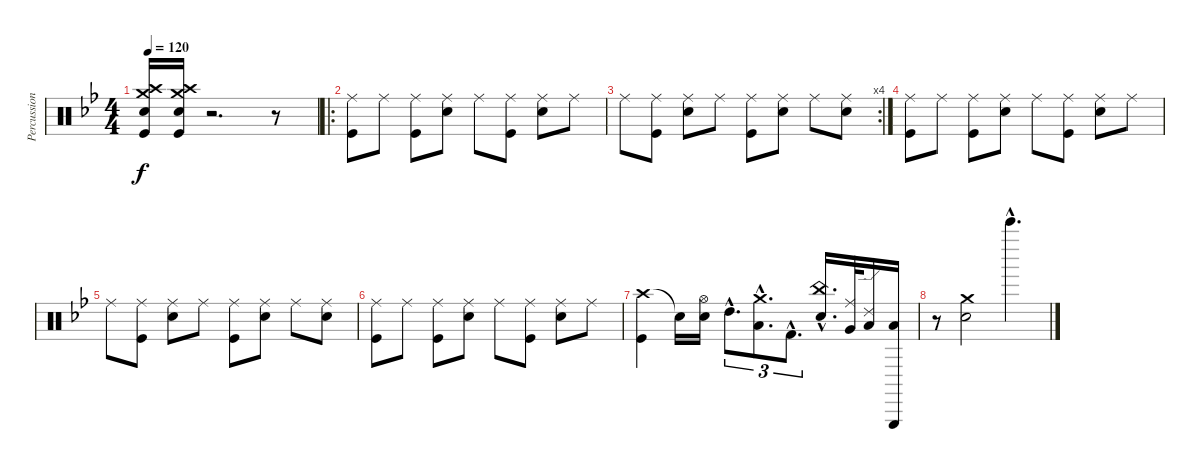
\track ("Percussions" "Percussion") {instrument percussion}
\staff {score}
\articulation defaults
\ts (4 4)
\tempo 120
\clef neutral
\ks gminor
("Kick (hit)" "Crash high (hit)" "Crash medium (hit)" "Electric Snare (hit)").16{dy f} ("Kick (hit)" "Crash high (hit)" "Crash medium (hit)" "Electric Snare (hit)").16 r.2{d} r.8 |
\ro
("Ride (middle)" "Kick (hit)").8 "Ride (middle)".8 ("Ride (middle)" "Kick (hit)").8 ("Ride (middle)" "Snare (hit) 2").8 "Ride (middle)".8 ("Ride (middle)" "Kick (hit)").8 ("Ride (middle)" "Snare (hit) 2").8 "Ride (middle)".8 |
\rc 4 "Ride (middle)".8
("Ride (middle)" "Kick (hit)").8 ("Ride (middle)" "Snare (hit) 2").8 "Ride (middle)".8 ("Ride (middle)" "Kick (hit)").8 ("Ride (middle)" "Snare (hit) 2").8 "Ride (middle)".8 ("Ride (middle)" "Electric Snare (hit)").8 |
("Ride (middle)" "Kick (hit)").8 "Ride (middle)".8 ("Ride (middle)" "Kick (hit)").8 ("Ride (middle)" "Snare (hit) 2").8 "Ride (middle)".8 ("Ride (middle)" "Kick (hit)").8 ("Ride (middle)" "Snare (hit) 2").8 "Ride (middle)".8 |
"Ride (middle)".8 ("Ride (middle)" "Kick (hit)").8 ("Ride (middle)" "Snare (hit) 2").8 "Ride (middle)".8 ("Ride (middle)" "Kick (hit)").8 ("Ride (middle)" "Snare (hit) 2").8 "Ride (middle)".8 ("Ride (middle)" "Electric Snare (hit)").8 |
("Ride (middle)" "Kick (hit)").8 "Ride (middle)".8 ("Ride (middle)" "Kick (hit)").8 ("Ride (middle)" "Snare (hit) 2").8 "Ride (middle)".8 ("Ride (middle)" "Kick (hit)").8 ("Ride (middle)" "Snare (hit) 2").8 "Ride (middle)".8 |
("Crash high (hit)" "Kick (hit)").4 "Snare (hit) 2"{t}.16 ("Hi-Hat (open)" "Snare (hit) 2").16 "High Tom (hit)"{hac}.8{d tu (3 2)} ("Crash medium (hit)"{hac} "Low Tom (hit)"{hac}).8{d tu (3 2)} "Kick (hit) 2"{hac}.8{d tu (3 2)} ("China (hit)"{hac} "Electric Snare (hit)"{hac}).16{d} ("Ride (middle)" "Very Low Tom (hit)").32 ("Ride (edge) 2" "Low Tom (hit)").16 ("Triangle (hit)" "Low Floor Tom (hit)").16 |
r.8 ("Crash medium (hit)" "Snare (hit) 2").2 "Bell Tree (hit)"{hac}.4{d}
